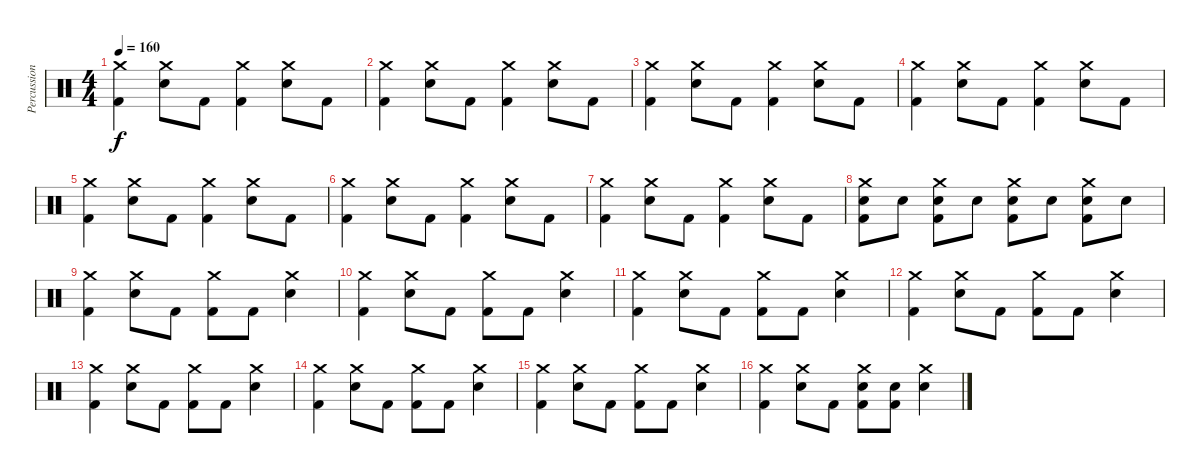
\track ("Percussions" "Percussion") {instrument percussion}
\staff {score}
\articulation defaults
\ts (4 4)
\tempo 160
\clef neutral
\ks c
("Crash medium (hit)" "Kick (hit) 2").4{dy f} ("Crash medium (hit)" "Snare (hit) 2").8 "Kick (hit) 2".8 ("Crash medium (hit)" "Kick (hit) 2").4 ("Crash medium (hit)" "Snare (hit) 2").8 "Kick (hit) 2".8 |
("Crash medium (hit)" "Kick (hit) 2").4 ("Crash medium (hit)" "Snare (hit) 2").8 "Kick (hit) 2".8 ("Crash medium (hit)" "Kick (hit) 2").4 ("Crash medium (hit)" "Snare (hit) 2").8 "Kick (hit) 2".8 |
("Crash medium (hit)" "Kick (hit) 2").4 ("Crash medium (hit)" "Snare (hit) 2").8 "Kick (hit) 2".8 ("Crash medium (hit)" "Kick (hit) 2").4 ("Crash medium (hit)" "Snare (hit) 2").8 "Kick (hit) 2".8 |
("Crash medium (hit)" "Kick (hit) 2").4 ("Crash medium (hit)" "Snare (hit) 2").8 "Kick (hit) 2".8 ("Crash medium (hit)" "Kick (hit) 2").4 ("Crash medium (hit)" "Snare (hit) 2").8 "Kick (hit) 2".8 |
("Crash medium (hit)" "Kick (hit) 2").4 ("Crash medium (hit)" "Snare (hit) 2").8 "Kick (hit) 2".8 ("Crash medium (hit)" "Kick (hit) 2").4 ("Crash medium (hit)" "Snare (hit) 2").8 "Kick (hit) 2".8 |
("Crash medium (hit)" "Kick (hit) 2").4 ("Crash medium (hit)" "Snare (hit) 2").8 "Kick (hit) 2".8 ("Crash medium (hit)" "Kick (hit) 2").4 ("Crash medium (hit)" "Snare (hit) 2").8 "Kick (hit) 2".8 |
("Crash medium (hit)" "Kick (hit) 2").4 ("Crash medium (hit)" "Snare (hit) 2").8 "Kick (hit) 2".8 ("Crash medium (hit)" "Kick (hit) 2").4 ("Crash medium (hit)" "Snare (hit) 2").8 "Kick (hit) 2".8 |
("Crash medium (hit)" "Snare (hit) 2" "Kick (hit) 2").8 "Snare (hit) 2".8 ("Crash medium (hit)" "Snare (hit) 2" "Kick (hit) 2").8 "Snare (hit) 2".8 ("Crash medium (hit)" "Snare (hit) 2" "Kick (hit) 2").8 "Snare (hit) 2".8 ("Crash medium (hit)" "Snare (hit) 2" "Kick (hit) 2").8 "Snare (hit) 2".8 |
("Crash medium (hit)" "Kick (hit) 2").4 ("Crash medium (hit)" "Snare (hit) 2").8 "Kick (hit) 2".8 ("Crash medium (hit)" "Kick (hit) 2").8 "Kick (hit) 2".8 ("Crash medium (hit)" "Snare (hit) 2").4 |
("Crash medium (hit)" "Kick (hit) 2").4 ("Crash medium (hit)" "Snare (hit) 2").8 "Kick (hit) 2".8 ("Crash medium (hit)" "Kick (hit) 2").8 "Kick (hit) 2".8 ("Crash medium (hit)" "Snare (hit) 2").4 |
("Crash medium (hit)" "Kick (hit) 2").4 ("Crash medium (hit)" "Snare (hit) 2").8 "Kick (hit) 2".8 ("Crash medium (hit)" "Kick (hit) 2").8 "Kick (hit) 2".8 ("Crash medium (hit)" "Snare (hit) 2").4 |
("Crash medium (hit)" "Kick (hit) 2").4 ("Crash medium (hit)" "Snare (hit) 2").8 "Kick (hit) 2".8 ("Crash medium (hit)" "Kick (hit) 2").8 "Kick (hit) 2".8 ("Crash medium (hit)" "Snare (hit) 2").4 |
("Crash medium (hit)" "Kick (hit) 2").4 ("Crash medium (hit)" "Snare (hit) 2").8 "Kick (hit) 2".8 ("Crash medium (hit)" "Kick (hit) 2").8 "Kick (hit) 2".8 ("Crash medium (hit)" "Snare (hit) 2").4 |
("Crash medium (hit)" "Kick (hit) 2").4 ("Crash medium (hit)" "Snare (hit) 2").8 "Kick (hit) 2".8 ("Crash medium (hit)" "Kick (hit) 2").8 "Kick (hit) 2".8 ("Crash medium (hit)" "Snare (hit) 2").4 |
("Crash medium (hit)" "Kick (hit) 2").4 ("Crash medium (hit)" "Snare (hit) 2").8 "Kick (hit) 2".8 ("Crash medium (hit)" "Kick (hit) 2").8 "Kick (hit) 2".8 ("Crash medium (hit)" "Snare (hit) 2").4 |
("Crash medium (hit)" "Kick (hit) 2").4 ("Crash medium (hit)" "Snare (hit) 2").8 "Kick (hit) 2".8 ("Crash medium (hit)" "Snare (hit) 2" "Kick (hit) 2").8 ("Snare (hit) 2" "Kick (hit) 2").8 ("Crash medium (hit)" "Snare (hit) 2").4
